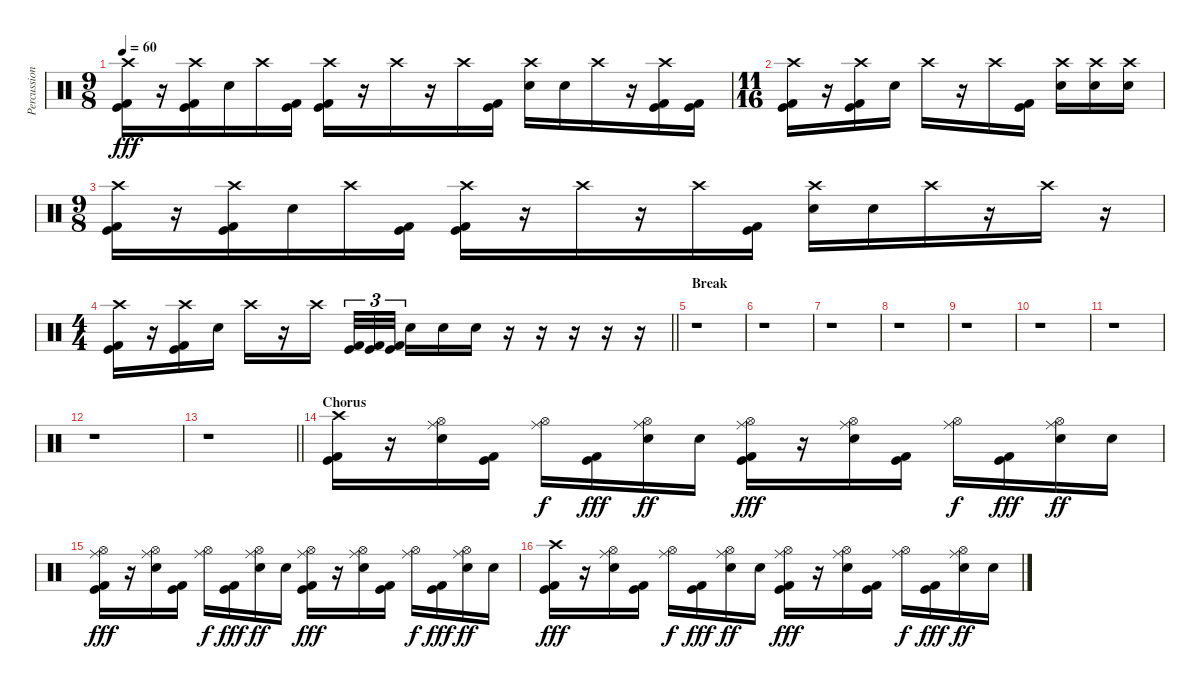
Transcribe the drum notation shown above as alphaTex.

\track ("Percussion" "Percussion") {instrument percussion}
\staff {score}
\articulation defaults
\ts (9 8)
\tempo 60
\clef neutral
\ks c
("Crash high (hit)" "Kick (hit)" "Kick (hit) 2").16{dy fff} r.16 ("Crash high (hit)" "Kick (hit)" "Kick (hit) 2").16 "Electric Snare (hit)".16 "Crash high (hit)".16 ("Kick (hit)" "Kick (hit) 2").16 ("Crash high (hit)" "Kick (hit)" "Kick (hit) 2").16 r.16 "Crash high (hit)".16 r.16 "Crash high (hit)".16 ("Kick (hit)" "Kick (hit) 2").16 ("Crash high (hit)" "Electric Snare (hit)").16 "Electric Snare (hit)".16 "Crash high (hit)".16 r.16 ("Crash high (hit)" "Kick (hit)" "Kick (hit) 2").16 ("Kick (hit)" "Kick (hit) 2").16 |
\ts (11 16)
("Crash high (hit)" "Kick (hit)" "Kick (hit) 2").16 r.16 ("Crash high (hit)" "Kick (hit)" "Kick (hit) 2").16 "Electric Snare (hit)".16 "Crash high (hit)".16 r.16 "Crash high (hit)".16 ("Kick (hit)" "Kick (hit) 2").16 ("Crash high (hit)" "Electric Snare (hit)").16 ("Crash high (hit)" "Electric Snare (hit)").16 ("Crash high (hit)" "Electric Snare (hit)").16 |
\ts (9 8)
("Crash high (hit)" "Kick (hit)" "Kick (hit) 2").16 r.16 ("Crash high (hit)" "Kick (hit)" "Kick (hit) 2").16 "Electric Snare (hit)".16 "Crash high (hit)".16 ("Kick (hit)" "Kick (hit) 2").16 ("Crash high (hit)" "Kick (hit)" "Kick (hit) 2").16 r.16 "Crash high (hit)".16 r.16 "Crash high (hit)".16 ("Kick (hit)" "Kick (hit) 2").16 ("Crash high (hit)" "Electric Snare (hit)").16 "Electric Snare (hit)".16 "Crash high (hit)".16 r.16 "Crash high (hit)".16 r.16 |
\ts (4 4)
\barLineRight lightlight
("Crash high (hit)" "Kick (hit)" "Kick (hit) 2").16 r.16 ("Crash high (hit)" "Kick (hit)" "Kick (hit) 2").16 "Electric Snare (hit)".16 "Crash high (hit)".16 r.16 "Crash high (hit)".16{beam splitsecondary} ("Kick (hit)" "Kick (hit) 2").32{tu (3 2)} ("Kick (hit)" "Kick (hit) 2").32{tu (3 2)} ("Kick (hit)" "Kick (hit) 2").32{tu (3 2)} "Electric Snare (hit)".16 "Electric Snare (hit)".16 "Electric Snare (hit)".16 r.16 r.16 r.16 r.16 r.16 |
\section ("" "Break")
r.1 |
r.1 |
r.1 |
r.1 |
r.1 |
r.1 |
r.1 |
r.1 |
\barLineRight lightlight
r.1 |
\section ("" "Chorus")
("Crash high (hit)" "Kick (hit)" "Kick (hit) 2").16 r.16 ("Hi-Hat (open)" "Ride (middle)" "Electric Snare (hit)").16 ("Kick (hit)" "Kick (hit) 2").16 ("Hi-Hat (open)" "Ride (middle)").16{dy f} ("Kick (hit)" "Kick (hit) 2").16{dy fff} ("Hi-Hat (open)" "Ride (middle)" "Electric Snare (hit)").16{dy ff} "Electric Snare (hit)".16 ("Hi-Hat (open)" "Ride (middle)" "Kick (hit)" "Kick (hit) 2").16{dy fff} r.16 ("Hi-Hat (open)" "Ride (middle)" "Electric Snare (hit)").16 ("Kick (hit)" "Kick (hit) 2").16 ("Hi-Hat (open)" "Ride (middle)").16{dy f} ("Kick (hit)" "Kick (hit) 2").16{dy fff} ("Hi-Hat (open)" "Ride (middle)" "Electric Snare (hit)").16{dy ff} "Electric Snare (hit)".16 |
("Hi-Hat (open)" "Ride (middle)" "Kick (hit)" "Kick (hit) 2").16{dy fff} r.16 ("Hi-Hat (open)" "Ride (middle)" "Electric Snare (hit)").16 ("Kick (hit)" "Kick (hit) 2").16 ("Hi-Hat (open)" "Ride (middle)").16{dy f} ("Kick (hit)" "Kick (hit) 2").16{dy fff} ("Hi-Hat (open)" "Ride (middle)" "Electric Snare (hit)").16{dy ff} "Electric Snare (hit)".16 ("Hi-Hat (open)" "Ride (middle)" "Kick (hit)" "Kick (hit) 2").16{dy fff} r.16 ("Hi-Hat (open)" "Ride (middle)" "Electric Snare (hit)").16 ("Kick (hit)" "Kick (hit) 2").16 ("Hi-Hat (open)" "Ride (middle)").16{dy f} ("Kick (hit)" "Kick (hit) 2").16{dy fff} ("Hi-Hat (open)" "Ride (middle)" "Electric Snare (hit)").16{dy ff} "Electric Snare (hit)".16 |
("Crash high (hit)" "Kick (hit)" "Kick (hit) 2").16{dy fff} r.16 ("Hi-Hat (open)" "Ride (middle)" "Electric Snare (hit)").16 ("Kick (hit)" "Kick (hit) 2").16 ("Hi-Hat (open)" "Ride (middle)").16{dy f} ("Kick (hit)" "Kick (hit) 2").16{dy fff} ("Hi-Hat (open)" "Ride (middle)" "Electric Snare (hit)").16{dy ff} "Electric Snare (hit)".16 ("Hi-Hat (open)" "Ride (middle)" "Kick (hit)" "Kick (hit) 2").16{dy fff} r.16 ("Hi-Hat (open)" "Ride (middle)" "Electric Snare (hit)").16 ("Kick (hit)" "Kick (hit) 2").16 ("Hi-Hat (open)" "Ride (middle)").16{dy f} ("Kick (hit)" "Kick (hit) 2").16{dy fff} ("Hi-Hat (open)" "Ride (middle)" "Electric Snare (hit)").16{dy ff} "Electric Snare (hit)".16
